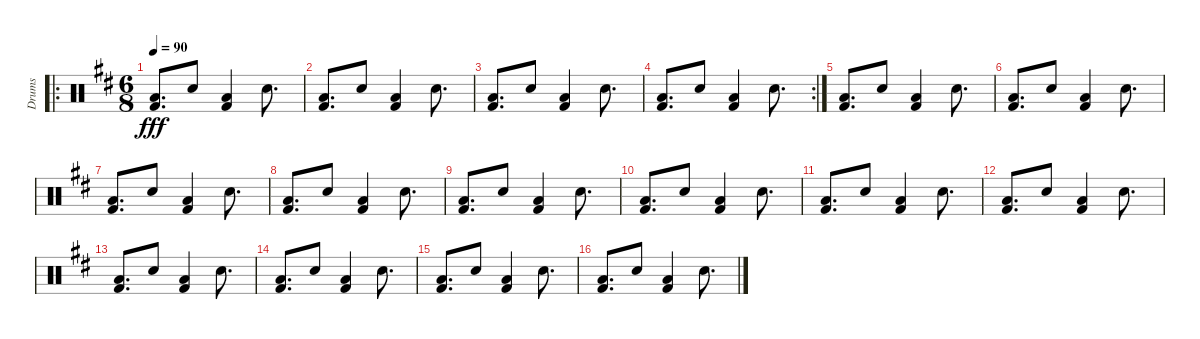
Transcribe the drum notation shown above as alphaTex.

\track ("Drums" "Drums") {instrument percussion}
\staff {score}
\articulation defaults
\ro
\ts (6 8)
\tempo 90
\clef neutral
\ks d
("Low Floor Tom (hit)" "Kick (hit) 2").8{d dy fff} "Electric Snare (hit)".8 ("Low Floor Tom (hit)" "Kick (hit) 2").4 "Electric Snare (hit)".8{d} |
("Low Floor Tom (hit)" "Kick (hit) 2").8{d} "Electric Snare (hit)".8 ("Low Floor Tom (hit)" "Kick (hit) 2").4 "Electric Snare (hit)".8{d} |
("Low Floor Tom (hit)" "Kick (hit) 2").8{d} "Electric Snare (hit)".8 ("Low Floor Tom (hit)" "Kick (hit) 2").4 "Electric Snare (hit)".8{d} |
\rc 2
("Low Floor Tom (hit)" "Kick (hit) 2").8{d} "Electric Snare (hit)".8 ("Low Floor Tom (hit)" "Kick (hit) 2").4 "Electric Snare (hit)".8{d} |
("Low Floor Tom (hit)" "Kick (hit) 2").8{d} "Electric Snare (hit)".8 ("Low Floor Tom (hit)" "Kick (hit) 2").4 "Electric Snare (hit)".8{d} |
("Low Floor Tom (hit)" "Kick (hit) 2").8{d} "Electric Snare (hit)".8 ("Low Floor Tom (hit)" "Kick (hit) 2").4 "Electric Snare (hit)".8{d} |
("Low Floor Tom (hit)" "Kick (hit) 2").8{d} "Electric Snare (hit)".8 ("Low Floor Tom (hit)" "Kick (hit) 2").4 "Electric Snare (hit)".8{d} |
("Low Floor Tom (hit)" "Kick (hit) 2").8{d} "Electric Snare (hit)".8 ("Low Floor Tom (hit)" "Kick (hit) 2").4 "Electric Snare (hit)".8{d} |
("Low Floor Tom (hit)" "Kick (hit) 2").8{d} "Electric Snare (hit)".8 ("Low Floor Tom (hit)" "Kick (hit) 2").4 "Electric Snare (hit)".8{d} |
("Low Floor Tom (hit)" "Kick (hit) 2").8{d} "Electric Snare (hit)".8 ("Low Floor Tom (hit)" "Kick (hit) 2").4 "Electric Snare (hit)".8{d} |
("Low Floor Tom (hit)" "Kick (hit) 2").8{d} "Electric Snare (hit)".8 ("Low Floor Tom (hit)" "Kick (hit) 2").4 "Electric Snare (hit)".8{d} |
("Low Floor Tom (hit)" "Kick (hit) 2").8{d} "Electric Snare (hit)".8 ("Low Floor Tom (hit)" "Kick (hit) 2").4 "Electric Snare (hit)".8{d} |
("Low Floor Tom (hit)" "Kick (hit) 2").8{d} "Electric Snare (hit)".8 ("Low Floor Tom (hit)" "Kick (hit) 2").4 "Electric Snare (hit)".8{d} |
("Low Floor Tom (hit)" "Kick (hit) 2").8{d} "Electric Snare (hit)".8 ("Low Floor Tom (hit)" "Kick (hit) 2").4 "Electric Snare (hit)".8{d} |
("Low Floor Tom (hit)" "Kick (hit) 2").8{d} "Electric Snare (hit)".8 ("Low Floor Tom (hit)" "Kick (hit) 2").4 "Electric Snare (hit)".8{d} |
("Low Floor Tom (hit)" "Kick (hit) 2").8{d} "Electric Snare (hit)".8 ("Low Floor Tom (hit)" "Kick (hit) 2").4 "Electric Snare (hit)".8{d}
